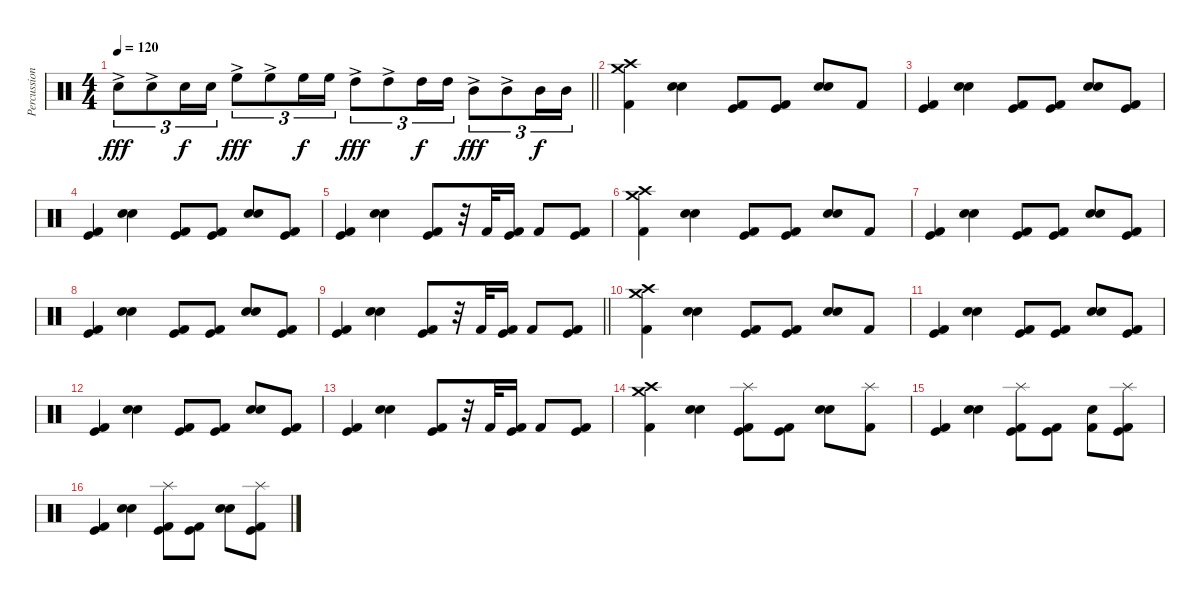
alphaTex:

\track ("Percussion" "Percussion") {instrument percussion}
\staff {score}
\articulation defaults
\ts (4 4)
\tempo 120
\clef neutral
\barLineRight lightlight
\ks c "Snare (hit) 2"{ac}.8{tu (3 2) dy fff} "Snare (hit) 2"{ac}.8{tu (3 2)} "Snare (hit) 2".16{tu (3 2) dy f} "Snare (hit) 2".16{tu (3 2)} "High Floor Tom (hit)"{ac}.8{tu (3 2) dy fff} "High Floor Tom (hit)"{ac}.8{tu (3 2)} "High Floor Tom (hit)".16{tu (3 2) dy f} "High Floor Tom (hit)".16{tu (3 2)} "High Tom (hit)"{ac}.8{tu (3 2) dy fff} "High Tom (hit)"{ac}.8{tu (3 2)} "High Tom (hit)".16{tu (3 2) dy f} "High Tom (hit)".16{tu (3 2)} "Mid Tom (hit)"{ac}.8{tu (3 2) dy fff} "Mid Tom (hit)"{ac}.8{tu (3 2)} "Mid Tom (hit)".16{tu (3 2) dy f} "Mid Tom (hit)".16{tu (3 2)}
|
("Crash high (hit)" "Crash medium (hit)" "Kick (hit) 2").4 ("Snare (hit) 2" "Electric Snare (hit)").4 ("Kick (hit)" "Kick (hit) 2").8 ("Kick (hit)" "Kick (hit) 2").8 ("Snare (hit) 2" "Electric Snare (hit)").8 "Kick (hit) 2".8 |
("Kick (hit)" "Kick (hit) 2").4 ("Snare (hit) 2" "Electric Snare (hit)").4 ("Kick (hit)" "Kick (hit) 2").8 ("Kick (hit)" "Kick (hit) 2").8 ("Snare (hit) 2" "Electric Snare (hit)").8 ("Kick (hit)" "Kick (hit) 2").8 |
("Kick (hit)" "Kick (hit) 2").4 ("Snare (hit) 2" "Electric Snare (hit)").4 ("Kick (hit)" "Kick (hit) 2").8 ("Kick (hit)" "Kick (hit) 2").8 ("Snare (hit) 2" "Electric Snare (hit)").8 ("Kick (hit)" "Kick (hit) 2").8 |
("Kick (hit)" "Kick (hit) 2").4 ("Snare (hit) 2" "Electric Snare (hit)").4 ("Kick (hit)" "Kick (hit) 2").8 r.32 "Kick (hit) 2".32 ("Kick (hit)" "Kick (hit) 2").16 "Kick (hit) 2".8 ("Kick (hit)" "Kick (hit) 2").8 |
("Crash high (hit)" "Crash medium (hit)" "Kick (hit) 2").4 ("Snare (hit) 2" "Electric Snare (hit)").4 ("Kick (hit)" "Kick (hit) 2").8 ("Kick (hit)" "Kick (hit) 2").8 ("Snare (hit) 2" "Electric Snare (hit)").8 "Kick (hit) 2".8 |
("Kick (hit)" "Kick (hit) 2").4 ("Snare (hit) 2" "Electric Snare (hit)").4 ("Kick (hit)" "Kick (hit) 2").8 ("Kick (hit)" "Kick (hit) 2").8 ("Snare (hit) 2" "Electric Snare (hit)").8 ("Kick (hit)" "Kick (hit) 2").8 |
("Kick (hit)" "Kick (hit) 2").4 ("Snare (hit) 2" "Electric Snare (hit)").4 ("Kick (hit)" "Kick (hit) 2").8 ("Kick (hit)" "Kick (hit) 2").8 ("Snare (hit) 2" "Electric Snare (hit)").8 ("Kick (hit)" "Kick (hit) 2").8 |
\barLineRight lightlight
("Kick (hit)" "Kick (hit) 2").4 ("Snare (hit) 2" "Electric Snare (hit)").4 ("Kick (hit)" "Kick (hit) 2").8 r.32 "Kick (hit) 2".32 ("Kick (hit)" "Kick (hit) 2").16 "Kick (hit) 2".8 ("Kick (hit)" "Kick (hit) 2").8 |
("Crash high (hit)" "Crash medium (hit)" "Kick (hit) 2").4 ("Snare (hit) 2" "Electric Snare (hit)").4 ("Kick (hit)" "Kick (hit) 2").8 ("Kick (hit)" "Kick (hit) 2").8 ("Snare (hit) 2" "Electric Snare (hit)").8 "Kick (hit) 2".8 |
("Kick (hit)" "Kick (hit) 2").4 ("Snare (hit) 2" "Electric Snare (hit)").4 ("Kick (hit)" "Kick (hit) 2").8 ("Kick (hit)" "Kick (hit) 2").8 ("Snare (hit) 2" "Electric Snare (hit)").8 ("Kick (hit)" "Kick (hit) 2").8 |
("Kick (hit)" "Kick (hit) 2").4 ("Snare (hit) 2" "Electric Snare (hit)").4 ("Kick (hit)" "Kick (hit) 2").8 ("Kick (hit)" "Kick (hit) 2").8 ("Snare (hit) 2" "Electric Snare (hit)").8 ("Kick (hit)" "Kick (hit) 2").8 |
("Kick (hit)" "Kick (hit) 2").4 ("Snare (hit) 2" "Electric Snare (hit)").4 ("Kick (hit)" "Kick (hit) 2").8 r.32 "Kick (hit) 2".32 ("Kick (hit)" "Kick (hit) 2").16 "Kick (hit) 2".8 ("Kick (hit)" "Kick (hit) 2").8 |
("Crash high (hit)" "Crash medium (hit)" "Kick (hit) 2").4 ("Snare (hit) 2" "Electric Snare (hit)").4 ("Splash (hit)" "Kick (hit)" "Kick (hit) 2").8 ("Kick (hit)" "Kick (hit) 2").8 ("Snare (hit) 2" "Electric Snare (hit)").8 ("Splash (hit)" "Kick (hit) 2").8 |
("Kick (hit)" "Kick (hit) 2").4 ("Snare (hit) 2" "Electric Snare (hit)").4 ("Splash (hit)" "Kick (hit)" "Kick (hit) 2").8 ("Kick (hit)" "Kick (hit) 2").8 ("Kick (hit) 2" "Electric Snare (hit)").8 ("Splash (hit)" "Kick (hit)" "Kick (hit) 2").8 |
("Kick (hit)" "Kick (hit) 2").4 ("Snare (hit) 2" "Electric Snare (hit)").4 ("Splash (hit)" "Kick (hit)" "Kick (hit) 2").8 ("Kick (hit)" "Kick (hit) 2").8 ("Snare (hit) 2" "Electric Snare (hit)").8 ("Splash (hit)" "Kick (hit)" "Kick (hit) 2").8
